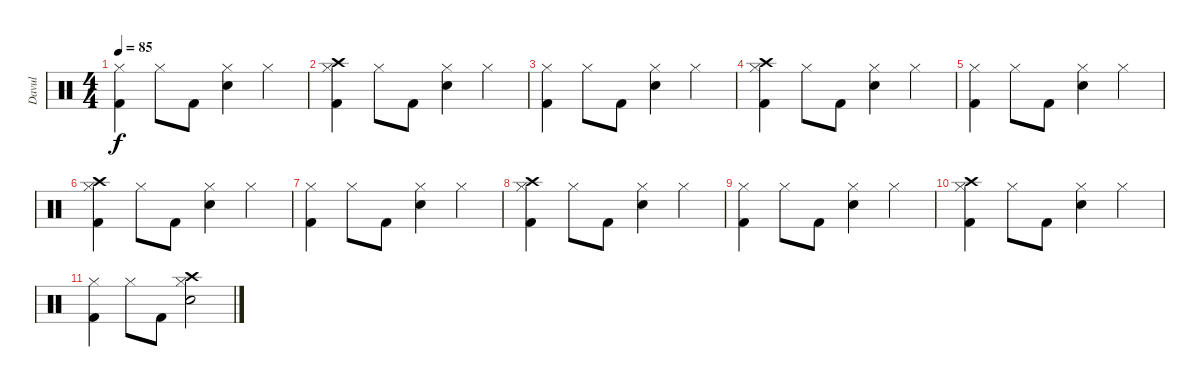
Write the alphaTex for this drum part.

\track ("Davul" "Davul") {instrument percussion}
\staff {score}
\articulation defaults
\ts (4 4)
\tempo 85
\clef neutral
\ks c
("Hi-Hat (closed)" "Kick (hit) 2").4{dy f} "Hi-Hat (closed)".8 "Kick (hit) 2".8 ("Hi-Hat (closed)" "Snare (hit) 2").4 "Hi-Hat (closed)".4 |
("Hi-Hat (closed)" "Crash high (hit)" "Kick (hit) 2").4 "Hi-Hat (closed)".8 "Kick (hit) 2".8 ("Hi-Hat (closed)" "Snare (hit) 2").4 "Hi-Hat (closed)".4 |
("Hi-Hat (closed)" "Kick (hit) 2").4 "Hi-Hat (closed)".8 "Kick (hit) 2".8 ("Hi-Hat (closed)" "Snare (hit) 2").4 "Hi-Hat (closed)".4 |
("Hi-Hat (closed)" "Crash high (hit)" "Kick (hit) 2").4 "Hi-Hat (closed)".8 "Kick (hit) 2".8 ("Hi-Hat (closed)" "Snare (hit) 2").4 "Hi-Hat (closed)".4 |
("Hi-Hat (closed)" "Kick (hit) 2").4 "Hi-Hat (closed)".8 "Kick (hit) 2".8 ("Hi-Hat (closed)" "Snare (hit) 2").4 "Hi-Hat (closed)".4 |
("Hi-Hat (closed)" "Crash high (hit)" "Kick (hit) 2").4 "Hi-Hat (closed)".8 "Kick (hit) 2".8 ("Hi-Hat (closed)" "Snare (hit) 2").4 "Hi-Hat (closed)".4 |
("Hi-Hat (closed)" "Kick (hit) 2").4 "Hi-Hat (closed)".8 "Kick (hit) 2".8 ("Hi-Hat (closed)" "Snare (hit) 2").4 "Hi-Hat (closed)".4 |
("Hi-Hat (closed)" "Crash high (hit)" "Kick (hit) 2").4 "Hi-Hat (closed)".8 "Kick (hit) 2".8 ("Hi-Hat (closed)" "Snare (hit) 2").4 "Hi-Hat (closed)".4 |
("Hi-Hat (closed)" "Kick (hit) 2").4 "Hi-Hat (closed)".8 "Kick (hit) 2".8 ("Hi-Hat (closed)" "Snare (hit) 2").4 "Hi-Hat (closed)".4 |
("Hi-Hat (closed)" "Crash high (hit)" "Kick (hit) 2").4 "Hi-Hat (closed)".8 "Kick (hit) 2".8 ("Hi-Hat (closed)" "Snare (hit) 2").4 "Hi-Hat (closed)".4 |
("Hi-Hat (closed)" "Kick (hit) 2").4 "Hi-Hat (closed)".8 "Kick (hit) 2".8 ("Hi-Hat (closed)" "Crash high (hit)" "Snare (hit) 2").2
